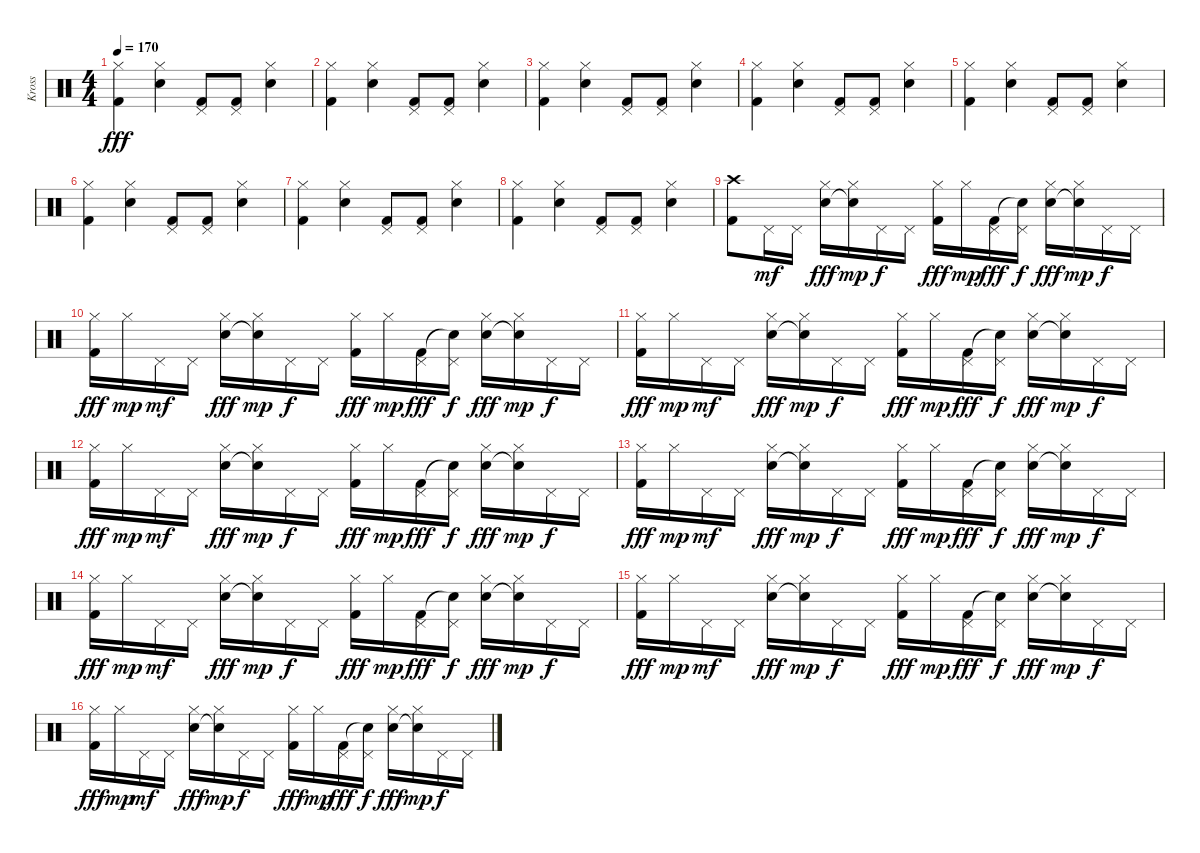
\track ("Kross" "Kross") {instrument percussion}
\staff {score}
\articulation defaults
\ts (4 4)
\tempo 170
\clef neutral
\ks c
("Hi-Hat (closed)" "Kick (hit) 2").4{dy fff} ("Hi-Hat (closed)" "Snare (hit) 2").4 ("Pedal Hi-Hat (hit)" "Kick (hit) 2").8 ("Pedal Hi-Hat (hit)" "Kick (hit) 2").8 ("Hi-Hat (closed)" "Snare (hit) 2").4 |
("Hi-Hat (closed)" "Kick (hit) 2").4 ("Hi-Hat (closed)" "Snare (hit) 2").4 ("Pedal Hi-Hat (hit)" "Kick (hit) 2").8 ("Pedal Hi-Hat (hit)" "Kick (hit) 2").8 ("Hi-Hat (closed)" "Snare (hit) 2").4 |
("Hi-Hat (closed)" "Kick (hit) 2").4 ("Hi-Hat (closed)" "Snare (hit) 2").4 ("Pedal Hi-Hat (hit)" "Kick (hit) 2").8 ("Pedal Hi-Hat (hit)" "Kick (hit) 2").8 ("Hi-Hat (closed)" "Snare (hit) 2").4 |
("Hi-Hat (closed)" "Kick (hit) 2").4 ("Hi-Hat (closed)" "Snare (hit) 2").4 ("Pedal Hi-Hat (hit)" "Kick (hit) 2").8 ("Pedal Hi-Hat (hit)" "Kick (hit) 2").8 ("Hi-Hat (closed)" "Snare (hit) 2").4 |
("Hi-Hat (closed)" "Kick (hit) 2").4 ("Hi-Hat (closed)" "Snare (hit) 2").4 ("Pedal Hi-Hat (hit)" "Kick (hit) 2").8 ("Pedal Hi-Hat (hit)" "Kick (hit) 2").8 ("Hi-Hat (closed)" "Snare (hit) 2").4 |
("Hi-Hat (closed)" "Kick (hit) 2").4 ("Hi-Hat (closed)" "Snare (hit) 2").4 ("Pedal Hi-Hat (hit)" "Kick (hit) 2").8 ("Pedal Hi-Hat (hit)" "Kick (hit) 2").8 ("Hi-Hat (closed)" "Snare (hit) 2").4 |
("Hi-Hat (closed)" "Kick (hit) 2").4 ("Hi-Hat (closed)" "Snare (hit) 2").4 ("Pedal Hi-Hat (hit)" "Kick (hit) 2").8 ("Pedal Hi-Hat (hit)" "Kick (hit) 2").8 ("Hi-Hat (closed)" "Snare (hit) 2").4 |
("Hi-Hat (closed)" "Kick (hit) 2").4 ("Hi-Hat (closed)" "Snare (hit) 2").4 ("Pedal Hi-Hat (hit)" "Kick (hit) 2").8 ("Pedal Hi-Hat (hit)" "Kick (hit) 2").8 ("Hi-Hat (closed)" "Snare (hit) 2").4 |
("Crash high (hit)" "Kick (hit) 2").8 "Pedal Hi-Hat (hit)".16{dy mf} "Pedal Hi-Hat (hit)".16 ("Hi-Hat (closed)" "Snare (hit) 2").16{dy fff} ("Hi-Hat (closed)" "Snare (hit)"{t}).16{dy mp} "Pedal Hi-Hat (hit)".16{dy f} "Pedal Hi-Hat (hit)".16 ("Hi-Hat (closed)" "Kick (hit) 2").16{dy fff} "Hi-Hat (closed)".16{dy mp} ("Pedal Hi-Hat (hit)" "Kick (hit) 2").16{dy fff} ("Pedal Hi-Hat (hit)" "Snare (hit)"{t}).16{dy f} ("Hi-Hat (closed)" "Snare (hit) 2").16{dy fff} ("Hi-Hat (closed)" "Snare (hit)"{t}).16{dy mp} "Pedal Hi-Hat (hit)".16{dy f} "Pedal Hi-Hat (hit)".16 |
("Hi-Hat (closed)" "Kick (hit) 2").16{dy fff} "Hi-Hat (closed)".16{dy mp} "Pedal Hi-Hat (hit)".16{dy mf} "Pedal Hi-Hat (hit)".16 ("Hi-Hat (closed)" "Snare (hit) 2").16{dy fff} ("Hi-Hat (closed)" "Snare (hit)"{t}).16{dy mp} "Pedal Hi-Hat (hit)".16{dy f} "Pedal Hi-Hat (hit)".16 ("Hi-Hat (closed)" "Kick (hit) 2").16{dy fff} "Hi-Hat (closed)".16{dy mp} ("Pedal Hi-Hat (hit)" "Kick (hit) 2").16{dy fff} ("Pedal Hi-Hat (hit)" "Snare (hit)"{t}).16{dy f} ("Hi-Hat (closed)" "Snare (hit) 2").16{dy fff} ("Hi-Hat (closed)" "Snare (hit)"{t}).16{dy mp} "Pedal Hi-Hat (hit)".16{dy f} "Pedal Hi-Hat (hit)".16 |
("Hi-Hat (closed)" "Kick (hit) 2").16{dy fff} "Hi-Hat (closed)".16{dy mp} "Pedal Hi-Hat (hit)".16{dy mf} "Pedal Hi-Hat (hit)".16 ("Hi-Hat (closed)" "Snare (hit) 2").16{dy fff} ("Hi-Hat (closed)" "Snare (hit)"{t}).16{dy mp} "Pedal Hi-Hat (hit)".16{dy f} "Pedal Hi-Hat (hit)".16 ("Hi-Hat (closed)" "Kick (hit) 2").16{dy fff} "Hi-Hat (closed)".16{dy mp} ("Pedal Hi-Hat (hit)" "Kick (hit) 2").16{dy fff} ("Pedal Hi-Hat (hit)" "Snare (hit)"{t}).16{dy f} ("Hi-Hat (closed)" "Snare (hit) 2").16{dy fff} ("Hi-Hat (closed)" "Snare (hit)"{t}).16{dy mp} "Pedal Hi-Hat (hit)".16{dy f} "Pedal Hi-Hat (hit)".16 |
("Hi-Hat (closed)" "Kick (hit) 2").16{dy fff} "Hi-Hat (closed)".16{dy mp} "Pedal Hi-Hat (hit)".16{dy mf} "Pedal Hi-Hat (hit)".16 ("Hi-Hat (closed)" "Snare (hit) 2").16{dy fff} ("Hi-Hat (closed)" "Snare (hit)"{t}).16{dy mp} "Pedal Hi-Hat (hit)".16{dy f} "Pedal Hi-Hat (hit)".16 ("Hi-Hat (closed)" "Kick (hit) 2").16{dy fff} "Hi-Hat (closed)".16{dy mp} ("Pedal Hi-Hat (hit)" "Kick (hit) 2").16{dy fff} ("Pedal Hi-Hat (hit)" "Snare (hit)"{t}).16{dy f} ("Hi-Hat (closed)" "Snare (hit) 2").16{dy fff} ("Hi-Hat (closed)" "Snare (hit)"{t}).16{dy mp} "Pedal Hi-Hat (hit)".16{dy f} "Pedal Hi-Hat (hit)".16 |
("Hi-Hat (closed)" "Kick (hit) 2").16{dy fff} "Hi-Hat (closed)".16{dy mp} "Pedal Hi-Hat (hit)".16{dy mf} "Pedal Hi-Hat (hit)".16 ("Hi-Hat (closed)" "Snare (hit) 2").16{dy fff} ("Hi-Hat (closed)" "Snare (hit)"{t}).16{dy mp} "Pedal Hi-Hat (hit)".16{dy f} "Pedal Hi-Hat (hit)".16 ("Hi-Hat (closed)" "Kick (hit) 2").16{dy fff} "Hi-Hat (closed)".16{dy mp} ("Pedal Hi-Hat (hit)" "Kick (hit) 2").16{dy fff} ("Pedal Hi-Hat (hit)" "Snare (hit)"{t}).16{dy f} ("Hi-Hat (closed)" "Snare (hit) 2").16{dy fff} ("Hi-Hat (closed)" "Snare (hit)"{t}).16{dy mp} "Pedal Hi-Hat (hit)".16{dy f} "Pedal Hi-Hat (hit)".16 |
("Hi-Hat (closed)" "Kick (hit) 2").16{dy fff} "Hi-Hat (closed)".16{dy mp} "Pedal Hi-Hat (hit)".16{dy mf} "Pedal Hi-Hat (hit)".16 ("Hi-Hat (closed)" "Snare (hit) 2").16{dy fff} ("Hi-Hat (closed)" "Snare (hit)"{t}).16{dy mp} "Pedal Hi-Hat (hit)".16{dy f} "Pedal Hi-Hat (hit)".16 ("Hi-Hat (closed)" "Kick (hit) 2").16{dy fff} "Hi-Hat (closed)".16{dy mp} ("Pedal Hi-Hat (hit)" "Kick (hit) 2").16{dy fff} ("Pedal Hi-Hat (hit)" "Snare (hit)"{t}).16{dy f} ("Hi-Hat (closed)" "Snare (hit) 2").16{dy fff} ("Hi-Hat (closed)" "Snare (hit)"{t}).16{dy mp} "Pedal Hi-Hat (hit)".16{dy f} "Pedal Hi-Hat (hit)".16 |
("Hi-Hat (closed)" "Kick (hit) 2").16{dy fff} "Hi-Hat (closed)".16{dy mp} "Pedal Hi-Hat (hit)".16{dy mf} "Pedal Hi-Hat (hit)".16 ("Hi-Hat (closed)" "Snare (hit) 2").16{dy fff} ("Hi-Hat (closed)" "Snare (hit)"{t}).16{dy mp} "Pedal Hi-Hat (hit)".16{dy f} "Pedal Hi-Hat (hit)".16 ("Hi-Hat (closed)" "Kick (hit) 2").16{dy fff} "Hi-Hat (closed)".16{dy mp} ("Pedal Hi-Hat (hit)" "Kick (hit) 2").16{dy fff} ("Pedal Hi-Hat (hit)" "Snare (hit)"{t}).16{dy f} ("Hi-Hat (closed)" "Snare (hit) 2").16{dy fff} ("Hi-Hat (closed)" "Snare (hit)"{t}).16{dy mp} "Pedal Hi-Hat (hit)".16{dy f} "Pedal Hi-Hat (hit)".16 |
("Hi-Hat (closed)" "Kick (hit) 2").16{dy fff} "Hi-Hat (closed)".16{dy mp} "Pedal Hi-Hat (hit)".16{dy mf} "Pedal Hi-Hat (hit)".16 ("Hi-Hat (closed)" "Snare (hit) 2").16{dy fff} ("Hi-Hat (closed)" "Snare (hit)"{t}).16{dy mp} "Pedal Hi-Hat (hit)".16{dy f} "Pedal Hi-Hat (hit)".16 ("Hi-Hat (closed)" "Kick (hit) 2").16{dy fff} "Hi-Hat (closed)".16{dy mp} ("Pedal Hi-Hat (hit)" "Kick (hit) 2").16{dy fff} ("Pedal Hi-Hat (hit)" "Snare (hit)"{t}).16{dy f} ("Hi-Hat (closed)" "Snare (hit) 2").16{dy fff} ("Hi-Hat (closed)" "Snare (hit)"{t}).16{dy mp} "Pedal Hi-Hat (hit)".16{dy f} "Pedal Hi-Hat (hit)".16
